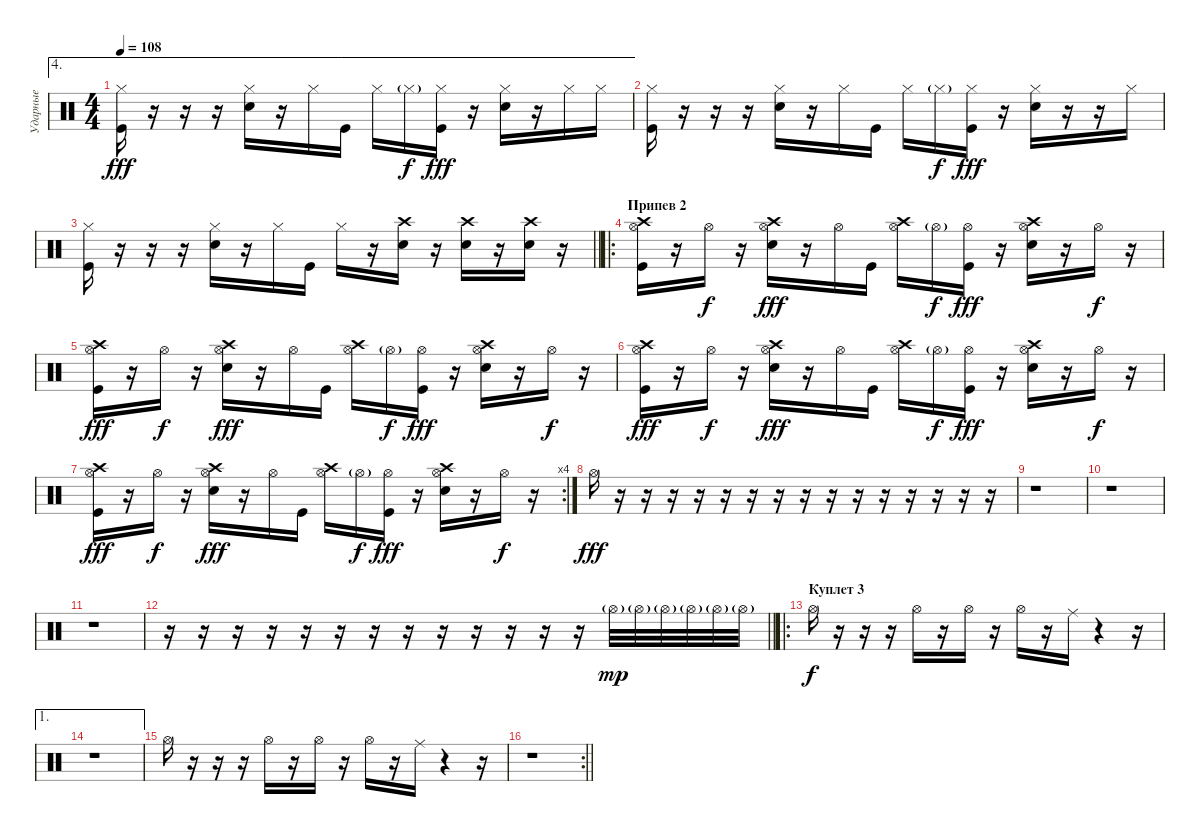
\track ("Ударные" "Ударные") {instrument percussion}
\staff {score}
\articulation defaults
\ae 4
\ts (4 4)
\tempo 108
\clef neutral
\ks c
("Hi-Hat (closed)" "Kick (hit)").16{dy fff} r.16 r.16 r.16 ("Hi-Hat (closed)" "Electric Snare (hit)").16 r.16 "Hi-Hat (closed)".16 "Kick (hit)".16 "Hi-Hat (closed)".16 "Hi-Hat (closed)"{g}.16{dy f} ("Hi-Hat (closed)" "Kick (hit)").16{dy fff} r.16 ("Hi-Hat (closed)" "Electric Snare (hit)").16 r.16 "Hi-Hat (closed)".16 "Hi-Hat (closed)".16 |
("Hi-Hat (closed)" "Kick (hit)").16 r.16 r.16 r.16 ("Hi-Hat (closed)" "Electric Snare (hit)").16 r.16 "Hi-Hat (closed)".16 "Kick (hit)".16 "Hi-Hat (closed)".16 "Hi-Hat (closed)"{g}.16{dy f} ("Hi-Hat (closed)" "Kick (hit)").16{dy fff} r.16 ("Hi-Hat (closed)" "Electric Snare (hit)").16 r.16 r.16 "Hi-Hat (closed)".16 |
\barLineRight lightlight
("Hi-Hat (closed)" "Kick (hit)").16 r.16 r.16 r.16 ("Hi-Hat (closed)" "Electric Snare (hit)").16 r.16 "Hi-Hat (closed)".16 "Kick (hit)".16 "Hi-Hat (closed)".16 r.16 ("Electric Snare (hit)" "Crash high (hit)").16 r.16 ("Electric Snare (hit)" "Crash high (hit)").16 r.16 ("Electric Snare (hit)" "Crash high (hit)").16 r.16 |
\ro
\section ("" "Припев 2")
("Hi-Hat (open)" "Kick (hit)" "Crash high (hit)").16 r.16 "Hi-Hat (open)".16{dy f} r.16 ("Hi-Hat (open)" "Electric Snare (hit)" "Crash high (hit)").16{dy fff} r.16 "Hi-Hat (open)".16 "Kick (hit)".16 ("Hi-Hat (open)" "Crash high (hit)").16 "Hi-Hat (open)"{g}.16{dy f} ("Hi-Hat (open)" "Kick (hit)").16{dy fff} r.16 ("Hi-Hat (open)" "Electric Snare (hit)" "Crash high (hit)").16 r.16 "Hi-Hat (open)".16{dy f} r.16 |
("Hi-Hat (open)" "Kick (hit)" "Crash high (hit)").16{dy fff} r.16 "Hi-Hat (open)".16{dy f} r.16 ("Hi-Hat (open)" "Electric Snare (hit)" "Crash high (hit)").16{dy fff} r.16 "Hi-Hat (open)".16 "Kick (hit)".16 ("Hi-Hat (open)" "Crash high (hit)").16 "Hi-Hat (open)"{g}.16{dy f} ("Hi-Hat (open)" "Kick (hit)").16{dy fff} r.16 ("Hi-Hat (open)" "Electric Snare (hit)" "Crash high (hit)").16 r.16 "Hi-Hat (open)".16{dy f} r.16 |
("Hi-Hat (open)" "Kick (hit)" "Crash high (hit)").16{dy fff} r.16 "Hi-Hat (open)".16{dy f} r.16 ("Hi-Hat (open)" "Electric Snare (hit)" "Crash high (hit)").16{dy fff} r.16 "Hi-Hat (open)".16 "Kick (hit)".16 ("Hi-Hat (open)" "Crash high (hit)").16 "Hi-Hat (open)"{g}.16{dy f} ("Hi-Hat (open)" "Kick (hit)").16{dy fff} r.16 ("Hi-Hat (open)" "Electric Snare (hit)" "Crash high (hit)").16 r.16 "Hi-Hat (open)".16{dy f} r.16 |
\rc 4
("Hi-Hat (open)" "Kick (hit)" "Crash high (hit)").16{dy fff} r.16 "Hi-Hat (open)".16{dy f} r.16 ("Hi-Hat (open)" "Electric Snare (hit)" "Crash high (hit)").16{dy fff} r.16 "Hi-Hat (open)".16 "Kick (hit)".16 ("Hi-Hat (open)" "Crash high (hit)").16 "Hi-Hat (open)"{g}.16{dy f} ("Hi-Hat (open)" "Kick (hit)").16{dy fff} r.16 ("Hi-Hat (open)" "Electric Snare (hit)" "Crash high (hit)").16 r.16 "Hi-Hat (open)".16{dy f} r.16 |
"Hi-Hat (open)".16{dy fff} r.16 r.16 r.16 r.16 r.16 r.16 r.16 r.16 r.16 r.16 r.16 r.16 r.16 r.16 r.16 |
r.1 |
r.1 |
r.1 |
\barLineRight lightlight
r.16 r.16 r.16 r.16 r.16 r.16 r.16 r.16 r.16 r.16 r.16 r.16 r.16 "Hi-Hat (open)"{g}.32{dy mp} "Hi-Hat (open)"{g}.32 "Hi-Hat (open)"{g}.32 "Hi-Hat (open)"{g}.32 "Hi-Hat (open)"{g}.32 "Hi-Hat (open)"{g}.32 |
\ro
\section ("" "Куплет 3")
"Hi-Hat (open)".16{dy f} r.16 r.16 r.16 "Hi-Hat (open)".16 r.16 "Hi-Hat (open)".16 r.16 "Hi-Hat (open)".16 r.16 "Ride (middle)".16 r.4 r.16 |
\ae 1
r.1 |
"Hi-Hat (open)".16 r.16 r.16 r.16 "Hi-Hat (open)".16 r.16 "Hi-Hat (open)".16 r.16 "Hi-Hat (open)".16 r.16 "Ride (middle)".16 r.4 r.16 |
\rc 2
\barLineRight lightlight
r.1
